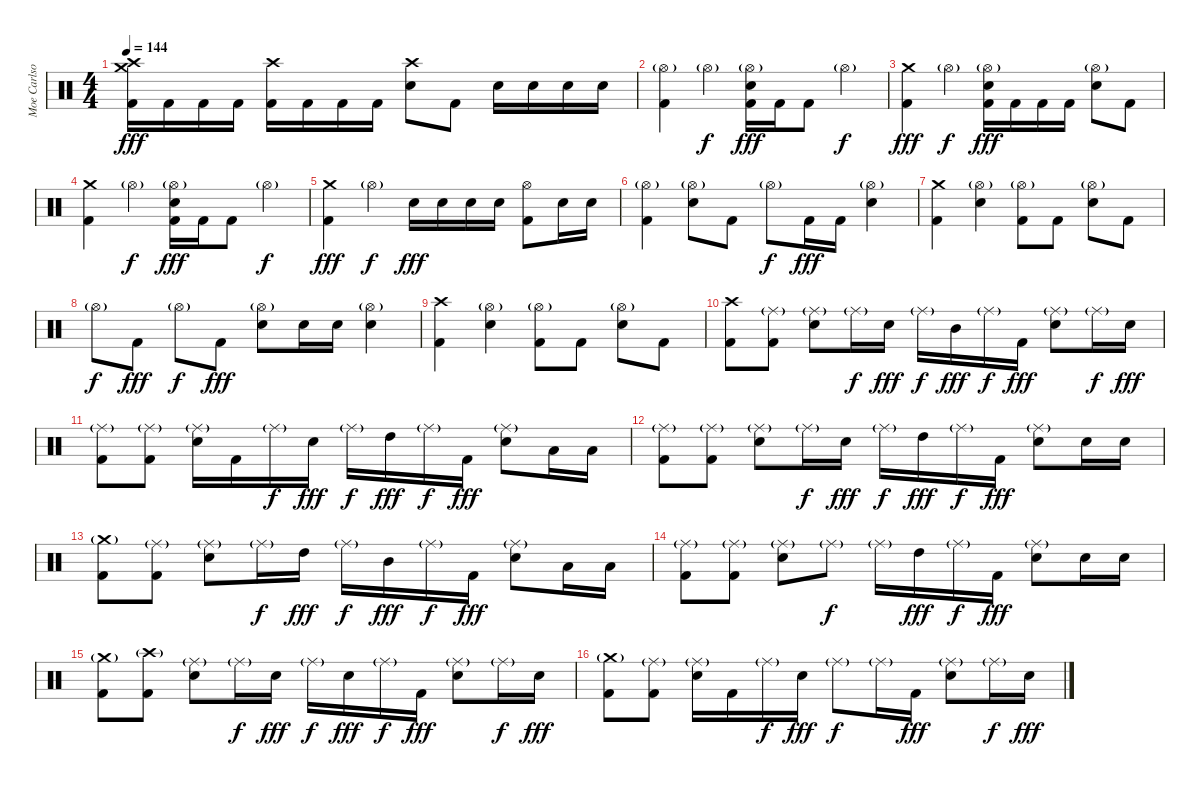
\track ("Moe Carlson" "Moe Carlso") {solo instrument percussion}
\staff {score}
\articulation defaults
\ts (4 4)
\tempo 144
\clef neutral
\ks c
("Crash high (hit)" "Crash medium (hit)" "Kick (hit) 2").16{dy fff} "Kick (hit) 2".16 "Kick (hit) 2".16 "Kick (hit) 2".16 ("Crash high (hit)" "Kick (hit) 2").16 "Kick (hit) 2".16 "Kick (hit) 2".16 "Kick (hit) 2".16 ("Crash high (hit)" "Electric Snare (hit)").8 "Kick (hit) 2".8 "Electric Snare (hit)".16 "Electric Snare (hit)".16 "Electric Snare (hit)".16 "Electric Snare (hit)".16 |
("Hi-Hat (open)"{g} "Kick (hit) 2").4 "Hi-Hat (open)"{g}.4{dy f} ("Hi-Hat (open)"{g} "Electric Snare (hit)" "Kick (hit) 2").16{dy fff} "Kick (hit) 2".16 "Kick (hit) 2".8 "Hi-Hat (open)"{g}.4{dy f} |
("Crash medium (hit)" "Kick (hit) 2").4{dy fff} "Hi-Hat (open)"{g}.4{dy f} ("Hi-Hat (open)"{g} "Electric Snare (hit)" "Kick (hit) 2").16{dy fff} "Kick (hit) 2".16 "Kick (hit) 2".16 "Kick (hit) 2".16 ("Hi-Hat (open)"{g} "Electric Snare (hit)").8 "Kick (hit) 2".8 |
("Crash medium (hit)" "Kick (hit) 2").4 "Hi-Hat (open)"{g}.4{dy f} ("Hi-Hat (open)"{g} "Electric Snare (hit)" "Kick (hit) 2").16{dy fff} "Kick (hit) 2".16 "Kick (hit) 2".8 "Hi-Hat (open)"{g}.4{dy f} |
("Crash medium (hit)" "Kick (hit) 2").4{dy fff} "Hi-Hat (open)"{g}.4{dy f} "Electric Snare (hit)".16{dy fff} "Electric Snare (hit)".16 "Electric Snare (hit)".16 "Electric Snare (hit)".16 ("Hi-Hat (open)" "Kick (hit) 2").8 "Electric Snare (hit)".16 "Electric Snare (hit)".16 |
("Hi-Hat (open)"{g} "Kick (hit) 2").4 ("Hi-Hat (open)"{g} "Electric Snare (hit)").8 "Kick (hit) 2".8 "Hi-Hat (open)"{g}.8{dy f} "Kick (hit) 2".16{dy fff} "Kick (hit) 2".16 ("Hi-Hat (open)"{g} "Electric Snare (hit)").4 |
("Crash medium (hit)" "Kick (hit) 2").4 ("Hi-Hat (open)"{g} "Electric Snare (hit)").4 ("Hi-Hat (open)"{g} "Kick (hit) 2").8 "Kick (hit) 2".8 ("Hi-Hat (open)"{g} "Electric Snare (hit)").8 "Kick (hit) 2".8 |
"Hi-Hat (open)"{g}.8{dy f} "Kick (hit) 2".8{dy fff} "Hi-Hat (open)"{g}.8{dy f} "Kick (hit) 2".8{dy fff} ("Hi-Hat (open)"{g} "Electric Snare (hit)").8 "Electric Snare (hit)".16 "Electric Snare (hit)".16 ("Hi-Hat (open)"{g} "Electric Snare (hit)").4 |
("Crash high (hit)" "Kick (hit) 2").4 ("Hi-Hat (open)"{g} "Electric Snare (hit)").4 ("Hi-Hat (open)"{g} "Kick (hit) 2").8 "Kick (hit) 2".8 ("Hi-Hat (open)"{g} "Electric Snare (hit)").8 "Kick (hit) 2".8 |
("Crash high (hit)" "Kick (hit) 2").8 ("Ride (middle)"{g} "Kick (hit) 2").8 ("Ride (middle)"{g} "Electric Snare (hit)").8 "Ride (middle)"{g}.16{dy f} "Electric Snare (hit)".16{dy fff} "Ride (middle)"{g}.16{dy f} "Mid Tom (hit)".16{dy fff} "Ride (middle)"{g}.16{dy f} "Kick (hit) 2".16{dy fff} ("Ride (middle)"{g} "Electric Snare (hit)").8 "Ride (middle)"{g}.16{dy f} "Electric Snare (hit)".16{dy fff} |
("Ride (middle)"{g} "Kick (hit) 2").8 ("Ride (middle)"{g} "Kick (hit) 2").8 ("Ride (middle)"{g} "Electric Snare (hit)").16 "Kick (hit) 2".16 "Ride (middle)"{g}.16{dy f} "Electric Snare (hit)".16{dy fff} "Ride (middle)"{g}.16{dy f} "High Tom (hit)".16{dy fff} "Ride (middle)"{g}.16{dy f} "Kick (hit) 2".16{dy fff} ("Ride (middle)"{g} "Electric Snare (hit)").8 "Low Tom (hit)".16 "Low Tom (hit)".16 |
("Ride (middle)"{g} "Kick (hit) 2").8 ("Ride (middle)"{g} "Kick (hit) 2").8 ("Ride (middle)"{g} "Electric Snare (hit)").8 "Ride (middle)"{g}.16{dy f} "Electric Snare (hit)".16{dy fff} "Ride (middle)"{g}.16{dy f} "High Tom (hit)".16{dy fff} "Ride (middle)"{g}.16{dy f} "Kick (hit) 2".16{dy fff} ("Ride (middle)"{g} "Electric Snare (hit)").8 "Electric Snare (hit)".16 "Electric Snare (hit)".16 |
("Crash medium (hit)"{g} "Kick (hit) 2").8 ("Ride (middle)"{g} "Kick (hit) 2").8 ("Ride (middle)"{g} "Electric Snare (hit)").8 "Ride (middle)"{g}.16{dy f} "High Tom (hit)".16{dy fff} "Ride (middle)"{g}.16{dy f} "Mid Tom (hit)".16{dy fff} "Ride (middle)"{g}.16{dy f} "Kick (hit) 2".16{dy fff} ("Ride (middle)"{g} "Electric Snare (hit)").8 "Low Tom (hit)".16 "Low Tom (hit)".16 |
("Ride (middle)"{g} "Kick (hit) 2").8 ("Ride (middle)"{g} "Kick (hit) 2").8 ("Ride (middle)"{g} "Electric Snare (hit)").8 "Ride (middle)"{g}.8{dy f} "Ride (middle)"{g}.16 "High Tom (hit)".16{dy fff} "Ride (middle)"{g}.16{dy f} "Kick (hit) 2".16{dy fff} ("Ride (middle)"{g} "Electric Snare (hit)").8 "Electric Snare (hit)".16 "Electric Snare (hit)".16 |
("Crash medium (hit)"{g} "Kick (hit) 2").8 ("Crash high (hit)"{g} "Kick (hit) 2").8 ("Ride (middle)"{g} "Electric Snare (hit)").8 "Ride (middle)"{g}.16{dy f} "Electric Snare (hit)".16{dy fff} "Ride (middle)"{g}.16{dy f} "Electric Snare (hit)".16{dy fff} "Ride (middle)"{g}.16{dy f} "Kick (hit) 2".16{dy fff} ("Ride (middle)"{g} "Electric Snare (hit)").8 "Ride (middle)"{g}.16{dy f} "Electric Snare (hit)".16{dy fff} |
("Crash medium (hit)"{g} "Kick (hit) 2").8 ("Ride (middle)"{g} "Kick (hit) 2").8 ("Ride (middle)"{g} "Electric Snare (hit)").16 "Kick (hit) 2".16 "Ride (middle)"{g}.16{dy f} "Electric Snare (hit)".16{dy fff} "Ride (middle)"{g}.8{dy f} "Ride (middle)"{g}.16 "Kick (hit) 2".16{dy fff} ("Ride (middle)"{g} "Electric Snare (hit)").8 "Ride (middle)"{g}.16{dy f} "Electric Snare (hit)".16{dy fff}
